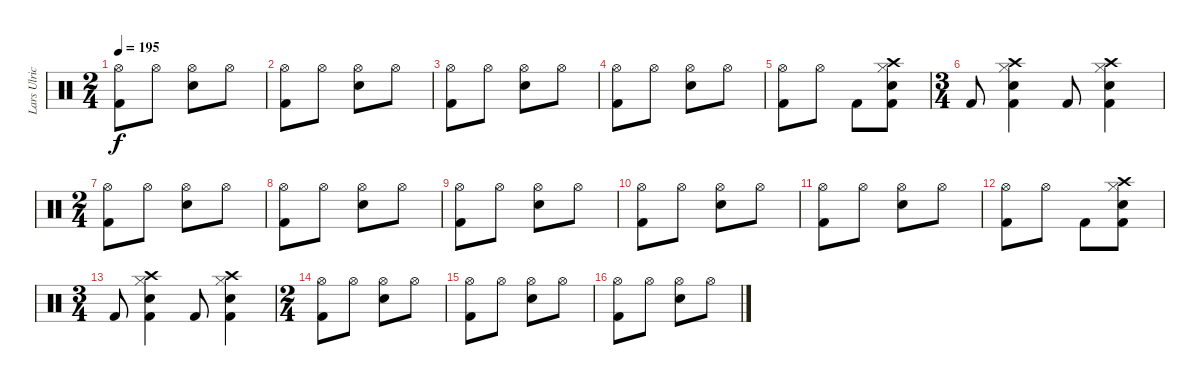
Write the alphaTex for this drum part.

\track ("Lars Ulrich" "Lars Ulric") {instrument percussion}
\staff {score}
\articulation defaults
\ts (2 4)
\tempo 195
\clef neutral
\ks c
("Kick (hit) 2" "Hi-Hat (open)").8{dy f} "Hi-Hat (open)".8 ("Snare (hit) 2" "Hi-Hat (open)").8 "Hi-Hat (open)".8 |
("Kick (hit) 2" "Hi-Hat (open)").8 "Hi-Hat (open)".8 ("Snare (hit) 2" "Hi-Hat (open)").8 "Hi-Hat (open)".8 |
("Kick (hit) 2" "Hi-Hat (open)").8 "Hi-Hat (open)".8 ("Snare (hit) 2" "Hi-Hat (open)").8 "Hi-Hat (open)".8 |
("Kick (hit) 2" "Hi-Hat (open)").8 "Hi-Hat (open)".8 ("Snare (hit) 2" "Hi-Hat (open)").8 "Hi-Hat (open)".8 |
("Kick (hit) 2" "Hi-Hat (open)").8 "Hi-Hat (open)".8 "Kick (hit) 2".8 ("Kick (hit) 2" "Snare (hit) 2" "Hi-Hat (closed)" "Crash high (hit)").8 |
\ts (3 4)
"Kick (hit) 2".8 ("Kick (hit) 2" "Snare (hit) 2" "Hi-Hat (closed)" "Crash high (hit)").4 "Kick (hit) 2".8 ("Kick (hit) 2" "Snare (hit) 2" "Hi-Hat (closed)" "Crash high (hit)").4 |
\ts (2 4)
("Kick (hit) 2" "Hi-Hat (open)").8 "Hi-Hat (open)".8 ("Snare (hit) 2" "Hi-Hat (open)").8 "Hi-Hat (open)".8 |
("Kick (hit) 2" "Hi-Hat (open)").8 "Hi-Hat (open)".8 ("Snare (hit) 2" "Hi-Hat (open)").8 "Hi-Hat (open)".8 |
("Kick (hit) 2" "Hi-Hat (open)").8 "Hi-Hat (open)".8 ("Snare (hit) 2" "Hi-Hat (open)").8 "Hi-Hat (open)".8 |
("Kick (hit) 2" "Hi-Hat (open)").8 "Hi-Hat (open)".8 ("Snare (hit) 2" "Hi-Hat (open)").8 "Hi-Hat (open)".8 |
("Kick (hit) 2" "Hi-Hat (open)").8 "Hi-Hat (open)".8 ("Snare (hit) 2" "Hi-Hat (open)").8 "Hi-Hat (open)".8 |
("Kick (hit) 2" "Hi-Hat (open)").8 "Hi-Hat (open)".8 "Kick (hit) 2".8 ("Kick (hit) 2" "Snare (hit) 2" "Hi-Hat (closed)" "Crash high (hit)").8 |
\ts (3 4)
"Kick (hit) 2".8 ("Kick (hit) 2" "Snare (hit) 2" "Hi-Hat (closed)" "Crash high (hit)").4 "Kick (hit) 2".8 ("Kick (hit) 2" "Snare (hit) 2" "Hi-Hat (closed)" "Crash high (hit)").4 |
\ts (2 4)
("Kick (hit) 2" "Hi-Hat (open)").8 "Hi-Hat (open)".8 ("Snare (hit) 2" "Hi-Hat (open)").8 "Hi-Hat (open)".8 |
("Kick (hit) 2" "Hi-Hat (open)").8 "Hi-Hat (open)".8 ("Snare (hit) 2" "Hi-Hat (open)").8 "Hi-Hat (open)".8 |
("Kick (hit) 2" "Hi-Hat (open)").8 "Hi-Hat (open)".8 ("Snare (hit) 2" "Hi-Hat (open)").8 "Hi-Hat (open)".8
